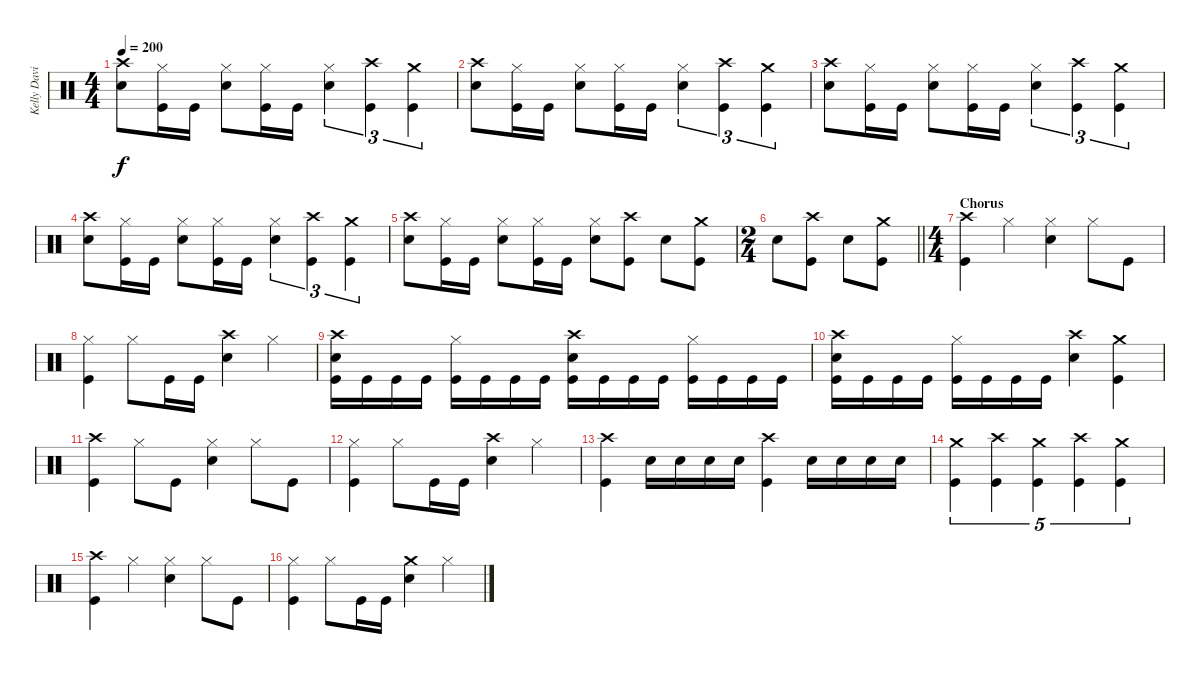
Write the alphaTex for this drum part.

\track ("Kelly David Smith" "Kelly Davi") {instrument percussion}
\staff {score}
\articulation defaults
\ts (4 4)
\tempo 200
\clef neutral
\ks c
("Crash high (hit)" "Snare (hit) 2").8{dy f} ("Hi-Hat (closed)" "Kick (hit)").16 "Kick (hit)".16 ("Hi-Hat (closed)" "Snare (hit) 2").8 ("Hi-Hat (closed)" "Kick (hit)").16 "Kick (hit)".16 ("Hi-Hat (closed)" "Snare (hit) 2").4{tu (3 2)} ("Crash high (hit)" "Kick (hit)").4{tu (3 2)} ("Crash medium (hit)" "Kick (hit)").4{tu (3 2)} |
("Crash high (hit)" "Snare (hit) 2").8 ("Hi-Hat (closed)" "Kick (hit)").16 "Kick (hit)".16 ("Hi-Hat (closed)" "Snare (hit) 2").8 ("Hi-Hat (closed)" "Kick (hit)").16 "Kick (hit)".16 ("Hi-Hat (closed)" "Snare (hit) 2").4{tu (3 2)} ("Crash high (hit)" "Kick (hit)").4{tu (3 2)} ("Crash medium (hit)" "Kick (hit)").4{tu (3 2)} |
("Crash high (hit)" "Snare (hit) 2").8 ("Hi-Hat (closed)" "Kick (hit)").16 "Kick (hit)".16 ("Hi-Hat (closed)" "Snare (hit) 2").8 ("Hi-Hat (closed)" "Kick (hit)").16 "Kick (hit)".16 ("Hi-Hat (closed)" "Snare (hit) 2").4{tu (3 2)} ("Crash high (hit)" "Kick (hit)").4{tu (3 2)} ("Crash medium (hit)" "Kick (hit)").4{tu (3 2)} |
("Crash high (hit)" "Snare (hit) 2").8 ("Hi-Hat (closed)" "Kick (hit)").16 "Kick (hit)".16 ("Hi-Hat (closed)" "Snare (hit) 2").8 ("Hi-Hat (closed)" "Kick (hit)").16 "Kick (hit)".16 ("Hi-Hat (closed)" "Snare (hit) 2").4{tu (3 2)} ("Crash high (hit)" "Kick (hit)").4{tu (3 2)} ("Crash medium (hit)" "Kick (hit)").4{tu (3 2)} |
("Crash high (hit)" "Snare (hit) 2").8 ("Hi-Hat (closed)" "Kick (hit)").16 "Kick (hit)".16 ("Hi-Hat (closed)" "Snare (hit) 2").8 ("Hi-Hat (closed)" "Kick (hit)").16 "Kick (hit)".16 ("Hi-Hat (closed)" "Snare (hit) 2").8 ("Crash high (hit)" "Kick (hit)").8 "Snare (hit) 2".8 ("Crash medium (hit)" "Kick (hit)").8 |
\ts (2 4)
\barLineRight lightlight "Snare (hit) 2".8
("Crash high (hit)" "Kick (hit)").8 "Snare (hit) 2".8 ("Crash medium (hit)" "Kick (hit)").8 |
\ts (4 4)
\section ("" "Chorus")
("Crash high (hit)" "Kick (hit)").4 "Hi-Hat (closed)".4 ("Hi-Hat (closed)" "Electric Snare (hit)").4 "Hi-Hat (closed)".8 "Kick (hit)".8 |
("Hi-Hat (closed)" "Kick (hit)").4 "Hi-Hat (closed)".8 "Kick (hit)".16 "Kick (hit)".16 ("Crash high (hit)" "Electric Snare (hit)").4 "Hi-Hat (closed)".4 |
("Crash high (hit)" "Electric Snare (hit)" "Kick (hit)").16 "Kick (hit)".16 "Kick (hit)".16 "Kick (hit)".16 ("Hi-Hat (closed)" "Kick (hit)").16 "Kick (hit)".16 "Kick (hit)".16 "Kick (hit)".16 ("Crash high (hit)" "Electric Snare (hit)" "Kick (hit)").16 "Kick (hit)".16 "Kick (hit)".16 "Kick (hit)".16 ("Hi-Hat (closed)" "Kick (hit)").16 "Kick (hit)".16 "Kick (hit)".16 "Kick (hit)".16 |
("Crash high (hit)" "Electric Snare (hit)" "Kick (hit)").16 "Kick (hit)".16 "Kick (hit)".16 "Kick (hit)".16 ("Hi-Hat (closed)" "Kick (hit)").16 "Kick (hit)".16 "Kick (hit)".16 "Kick (hit)".16 ("Crash high (hit)" "Electric Snare (hit)").4 ("Crash medium (hit)" "Kick (hit)").4 |
("Crash high (hit)" "Kick (hit)").4 "Hi-Hat (closed)".8 "Kick (hit)".8 ("Hi-Hat (closed)" "Electric Snare (hit)").4 "Hi-Hat (closed)".8 "Kick (hit)".8 |
("Hi-Hat (closed)" "Kick (hit)").4 "Hi-Hat (closed)".8 "Kick (hit)".16 "Kick (hit)".16 ("Crash high (hit)" "Electric Snare (hit)").4 "Hi-Hat (closed)".4 |
("Crash high (hit)" "Kick (hit)").4 "Electric Snare (hit)".16 "Electric Snare (hit)".16 "Electric Snare (hit)".16 "Electric Snare (hit)".16 ("Crash high (hit)" "Kick (hit)").4 "Electric Snare (hit)".16 "Electric Snare (hit)".16 "Electric Snare (hit)".16 "Electric Snare (hit)".16 |
("Crash medium (hit)" "Kick (hit)").4{tu (5 4)} ("Crash high (hit)" "Kick (hit)").4{tu (5 4)} ("Crash medium (hit)" "Kick (hit)").4{tu (5 4)} ("Crash high (hit)" "Kick (hit)").4{tu (5 4)} ("Crash medium (hit)" "Kick (hit)").4{tu (5 4)} |
("Crash high (hit)" "Kick (hit)").4 "Hi-Hat (closed)".4 ("Hi-Hat (closed)" "Electric Snare (hit)").4 "Hi-Hat (closed)".8 "Kick (hit)".8 |
("Hi-Hat (closed)" "Kick (hit)").4 "Hi-Hat (closed)".8 "Kick (hit)".16 "Kick (hit)".16 ("Crash medium (hit)" "Electric Snare (hit)").4 "Hi-Hat (closed)".4
